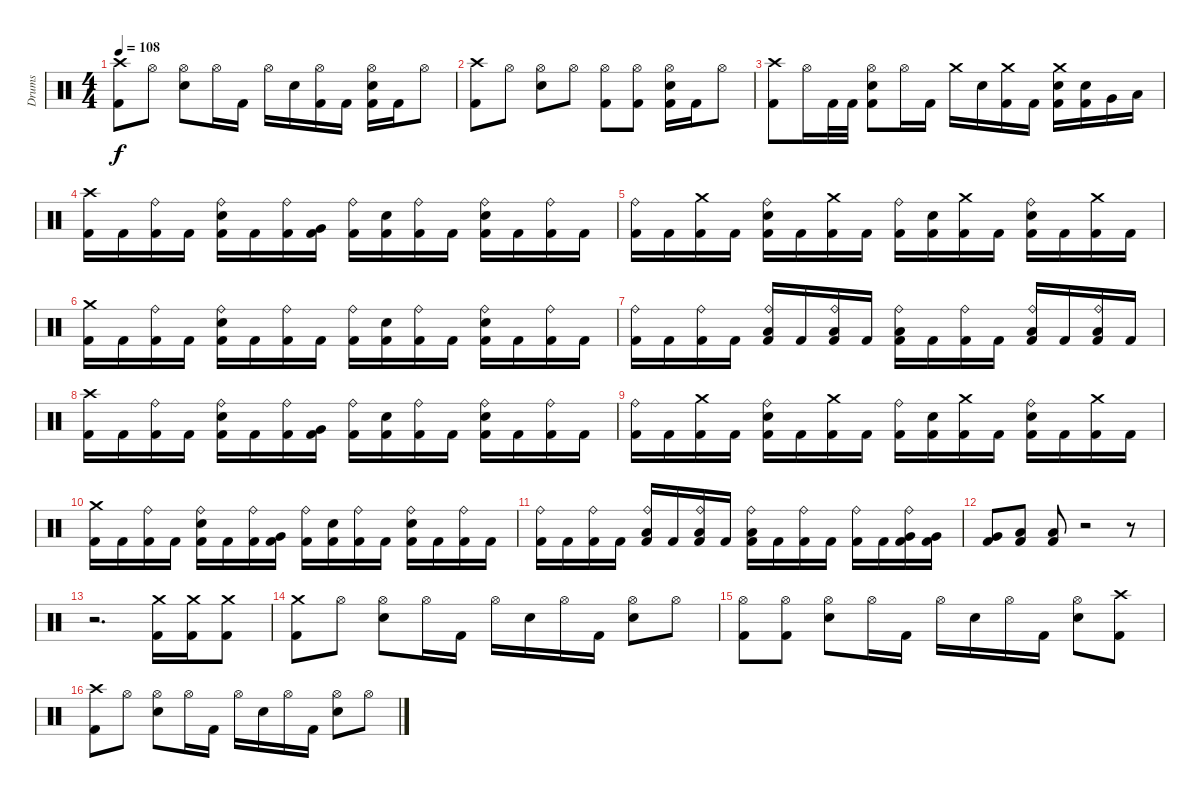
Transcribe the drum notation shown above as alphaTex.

\track ("Drums" "Drums") {instrument percussion}
\staff {score}
\articulation defaults
\ts (4 4)
\tempo 108
\clef neutral
\ks c
("Crash high (hit)" "Kick (hit) 2").8{dy f} "Hi-Hat (open)".8 ("Hi-Hat (open)" "Electric Snare (hit)").8 "Hi-Hat (open)".16 "Kick (hit) 2".16 "Hi-Hat (open)".16 "Electric Snare (hit)".16 ("Hi-Hat (open)" "Kick (hit) 2").16 "Kick (hit) 2".16 ("Hi-Hat (open)" "Electric Snare (hit)" "Kick (hit) 2").16 "Kick (hit) 2".16 "Hi-Hat (open)".8 |
("Crash high (hit)" "Kick (hit) 2").8 "Hi-Hat (open)".8 ("Hi-Hat (open)" "Electric Snare (hit)").8 "Hi-Hat (open)".8 ("Hi-Hat (open)" "Kick (hit) 2").8 ("Hi-Hat (open)" "Kick (hit) 2").8 ("Hi-Hat (open)" "Electric Snare (hit)" "Kick (hit) 2").16 "Kick (hit) 2".16 "Hi-Hat (open)".8 |
("Crash high (hit)" "Kick (hit) 2").8 "Hi-Hat (open)".16 "Kick (hit) 2".32 "Kick (hit) 2".32 ("Hi-Hat (open)" "Electric Snare (hit)" "Kick (hit) 2").8 "Hi-Hat (open)".16 "Kick (hit) 2".16 "Crash medium (hit)".16 "Electric Snare (hit)".16 ("Crash medium (hit)" "Kick (hit) 2").16 "Kick (hit) 2".16 ("Crash medium (hit)" "Electric Snare (hit)" "Kick (hit) 2").16 ("Electric Snare (hit)" "Kick (hit) 2").16 "Very Low Tom (hit)".16 "Low Tom (hit)".16 |
("Crash high (hit)" "Kick (hit) 2").16 "Kick (hit) 2".16 ("Ride (bell)" "Kick (hit) 2").16 "Kick (hit) 2".16 ("Ride (bell)" "Electric Snare (hit)" "Kick (hit) 2").16 "Kick (hit) 2".16 ("Ride (bell)" "Kick (hit) 2").16 ("Very Low Tom (hit)" "Kick (hit) 2").16 ("Ride (bell)" "Kick (hit) 2").16 ("Electric Snare (hit)" "Kick (hit) 2").16 ("Ride (bell)" "Kick (hit) 2").16 "Kick (hit) 2".16 ("Ride (bell)" "Electric Snare (hit)" "Kick (hit) 2").16 "Kick (hit) 2".16 ("Ride (bell)" "Kick (hit) 2").16 "Kick (hit) 2".16 |
("Ride (bell)" "Kick (hit) 2").16 "Kick (hit) 2".16 ("Crash medium (hit)" "Kick (hit) 2").16 "Kick (hit) 2".16 ("Ride (bell)" "Electric Snare (hit)" "Kick (hit) 2").16 "Kick (hit) 2".16 ("Crash medium (hit)" "Kick (hit) 2").16 "Kick (hit) 2".16 ("Ride (bell)" "Kick (hit) 2").16 ("Electric Snare (hit)" "Kick (hit) 2").16 ("Crash medium (hit)" "Kick (hit) 2").16 "Kick (hit) 2".16 ("Ride (bell)" "Electric Snare (hit)" "Kick (hit) 2").16 "Kick (hit) 2".16 ("Crash medium (hit)" "Kick (hit) 2").16 "Kick (hit) 2".16 |
("Crash medium (hit)" "Kick (hit) 2").16 "Kick (hit) 2".16 ("Ride (bell)" "Kick (hit) 2").16 "Kick (hit) 2".16 ("Ride (bell)" "Electric Snare (hit)" "Kick (hit) 2").16 "Kick (hit) 2".16 ("Ride (bell)" "Kick (hit) 2").16 "Kick (hit) 2".16 ("Ride (bell)" "Kick (hit) 2").16 ("Electric Snare (hit)" "Kick (hit) 2").16 ("Ride (bell)" "Kick (hit) 2").16 "Kick (hit) 2".16 ("Ride (bell)" "Electric Snare (hit)" "Kick (hit) 2").16 "Kick (hit) 2".16 ("Ride (bell)" "Kick (hit) 2").16 "Kick (hit) 2".16 |
("Ride (bell)" "Kick (hit) 2").16 "Kick (hit) 2".16 ("Ride (bell)" "Kick (hit) 2").16 "Kick (hit) 2".16 ("Ride (bell)" "Low Floor Tom (hit)" "Kick (hit) 2").16 "Kick (hit) 2".16 ("Ride (bell)" "Low Floor Tom (hit)" "Kick (hit) 2").16 "Kick (hit) 2".16 ("Ride (bell)" "Low Floor Tom (hit)" "Kick (hit) 2").16 "Kick (hit) 2".16 ("Ride (bell)" "Kick (hit) 2").16 "Kick (hit) 2".16 ("Ride (bell)" "Low Floor Tom (hit)" "Kick (hit) 2").16 "Kick (hit) 2".16 ("Ride (bell)" "Low Floor Tom (hit)" "Kick (hit) 2").16 "Kick (hit) 2".16 |
("Crash high (hit)" "Kick (hit) 2").16 "Kick (hit) 2".16 ("Ride (bell)" "Kick (hit) 2").16 "Kick (hit) 2".16 ("Ride (bell)" "Electric Snare (hit)" "Kick (hit) 2").16 "Kick (hit) 2".16 ("Ride (bell)" "Kick (hit) 2").16 ("Very Low Tom (hit)" "Kick (hit) 2").16 ("Ride (bell)" "Kick (hit) 2").16 ("Electric Snare (hit)" "Kick (hit) 2").16 ("Ride (bell)" "Kick (hit) 2").16 "Kick (hit) 2".16 ("Ride (bell)" "Electric Snare (hit)" "Kick (hit) 2").16 "Kick (hit) 2".16 ("Ride (bell)" "Kick (hit) 2").16 "Kick (hit) 2".16 |
("Ride (bell)" "Kick (hit) 2").16 "Kick (hit) 2".16 ("Crash medium (hit)" "Kick (hit) 2").16 "Kick (hit) 2".16 ("Ride (bell)" "Electric Snare (hit)" "Kick (hit) 2").16 "Kick (hit) 2".16 ("Crash medium (hit)" "Kick (hit) 2").16 "Kick (hit) 2".16 ("Ride (bell)" "Kick (hit) 2").16 ("Electric Snare (hit)" "Kick (hit) 2").16 ("Crash medium (hit)" "Kick (hit) 2").16 "Kick (hit) 2".16 ("Ride (bell)" "Electric Snare (hit)" "Kick (hit) 2").16 "Kick (hit) 2".16 ("Crash medium (hit)" "Kick (hit) 2").16 "Kick (hit) 2".16 |
("Crash medium (hit)" "Kick (hit) 2").16 "Kick (hit) 2".16 ("Ride (bell)" "Kick (hit) 2").16 "Kick (hit) 2".16 ("Ride (bell)" "Electric Snare (hit)" "Kick (hit) 2").16 "Kick (hit) 2".16 ("Ride (bell)" "Kick (hit) 2").16 ("Very Low Tom (hit)" "Kick (hit) 2").16 ("Ride (bell)" "Kick (hit) 2").16 ("Electric Snare (hit)" "Kick (hit) 2").16 ("Ride (bell)" "Kick (hit) 2").16 "Kick (hit) 2".16 ("Ride (bell)" "Electric Snare (hit)" "Kick (hit) 2").16 "Kick (hit) 2".16 ("Ride (bell)" "Kick (hit) 2").16 "Kick (hit) 2".16 |
("Ride (bell)" "Kick (hit) 2").16 "Kick (hit) 2".16 ("Ride (bell)" "Kick (hit) 2").16 "Kick (hit) 2".16 ("Ride (bell)" "Low Floor Tom (hit)" "Kick (hit) 2").16 "Kick (hit) 2".16 ("Ride (bell)" "Low Floor Tom (hit)" "Kick (hit) 2").16 "Kick (hit) 2".16 ("Ride (bell)" "Low Floor Tom (hit)" "Kick (hit) 2").16 "Kick (hit) 2".16 ("Ride (bell)" "Kick (hit) 2").16 "Kick (hit) 2".16 ("Ride (bell)" "Kick (hit) 2").16 "Kick (hit) 2".16 ("Ride (bell)" "Very Low Tom (hit)" "Kick (hit) 2").16 ("Very Low Tom (hit)" "Kick (hit) 2").16 |
("Very Low Tom (hit)" "Kick (hit) 2").8 ("Low Floor Tom (hit)" "Kick (hit) 2").8 ("Low Floor Tom (hit)" "Kick (hit) 2").8 r.2 r.8 |
r.2{d} ("Crash medium (hit)" "Kick (hit) 2").16 ("Crash medium (hit)" "Kick (hit) 2").16 ("Crash medium (hit)" "Kick (hit) 2").8 |
("Crash medium (hit)" "Kick (hit) 2").8 "Hi-Hat (open)".8 ("Hi-Hat (open)" "Electric Snare (hit)").8 "Hi-Hat (open)".16 "Kick (hit) 2".16 "Hi-Hat (open)".16 "Electric Snare (hit)".16 "Hi-Hat (open)".16 "Kick (hit) 2".16 ("Hi-Hat (open)" "Electric Snare (hit)").8 "Hi-Hat (open)".8 |
("Hi-Hat (open)" "Kick (hit) 2").8 ("Hi-Hat (open)" "Kick (hit) 2").8 ("Hi-Hat (open)" "Electric Snare (hit)").8 "Hi-Hat (open)".16 "Kick (hit) 2".16 "Hi-Hat (open)".16 "Electric Snare (hit)".16 "Hi-Hat (open)".16 "Kick (hit) 2".16 ("Hi-Hat (open)" "Electric Snare (hit)").8 ("Crash high (hit)" "Kick (hit) 2").8 |
("Crash high (hit)" "Kick (hit) 2").8 "Hi-Hat (open)".8 ("Hi-Hat (open)" "Electric Snare (hit)").8 "Hi-Hat (open)".16 "Kick (hit) 2".16 "Hi-Hat (open)".16 "Electric Snare (hit)".16 "Hi-Hat (open)".16 "Kick (hit) 2".16 ("Hi-Hat (open)" "Electric Snare (hit)").8 "Hi-Hat (open)".8
